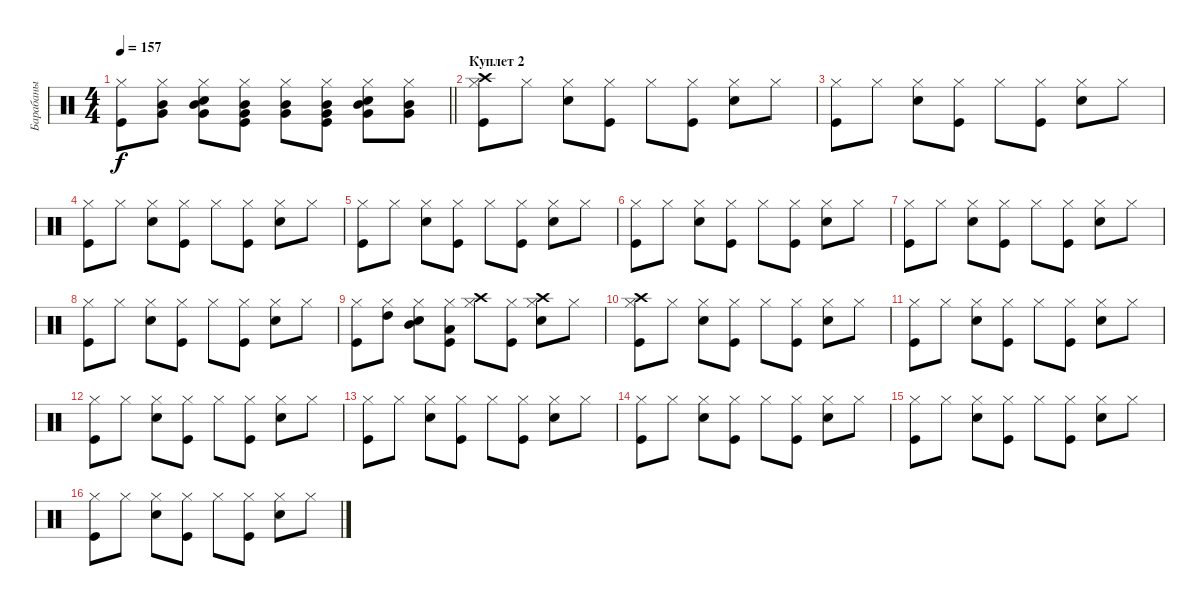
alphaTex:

\track ("Барабаны" "Барабаны") {instrument percussion}
\staff {score}
\articulation defaults
\ts (4 4)
\tempo 157
\clef neutral
\barLineRight lightlight
\ks c
("Kick (hit)" "Hi-Hat (closed)").8{dy f} ("Hi-Hat (closed)" "Very Low Tom (hit)" "Mid Tom (hit)").8 ("Snare (hit) 2" "Hi-Hat (closed)" "Very Low Tom (hit)" "Mid Tom (hit)").8 ("Kick (hit)" "Hi-Hat (closed)" "Very Low Tom (hit)" "Mid Tom (hit)").8 ("Hi-Hat (closed)" "Very Low Tom (hit)" "Mid Tom (hit)").8 ("Kick (hit)" "Hi-Hat (closed)" "Very Low Tom (hit)" "Mid Tom (hit)").8 ("Snare (hit) 2" "Hi-Hat (closed)" "Very Low Tom (hit)" "Mid Tom (hit)").8 ("Hi-Hat (closed)" "Very Low Tom (hit)" "Mid Tom (hit)").8 |
\section ("" "Куплет 2")
("Kick (hit)" "Hi-Hat (closed)" "Crash high (hit)").8 "Hi-Hat (closed)".8 ("Snare (hit) 2" "Hi-Hat (closed)").8 ("Kick (hit)" "Hi-Hat (closed)").8 "Hi-Hat (closed)".8 ("Kick (hit)" "Hi-Hat (closed)").8 ("Snare (hit) 2" "Hi-Hat (closed)").8 "Hi-Hat (closed)".8 |
("Kick (hit)" "Hi-Hat (closed)").8 "Hi-Hat (closed)".8 ("Snare (hit) 2" "Hi-Hat (closed)").8 ("Kick (hit)" "Hi-Hat (closed)").8 "Hi-Hat (closed)".8 ("Kick (hit)" "Hi-Hat (closed)").8 ("Snare (hit) 2" "Hi-Hat (closed)").8 "Hi-Hat (closed)".8 |
("Kick (hit)" "Hi-Hat (closed)").8 "Hi-Hat (closed)".8 ("Snare (hit) 2" "Hi-Hat (closed)").8 ("Kick (hit)" "Hi-Hat (closed)").8 "Hi-Hat (closed)".8 ("Kick (hit)" "Hi-Hat (closed)").8 ("Snare (hit) 2" "Hi-Hat (closed)").8 "Hi-Hat (closed)".8 |
("Kick (hit)" "Hi-Hat (closed)").8 "Hi-Hat (closed)".8 ("Snare (hit) 2" "Hi-Hat (closed)").8 ("Kick (hit)" "Hi-Hat (closed)").8 "Hi-Hat (closed)".8 ("Kick (hit)" "Hi-Hat (closed)").8 ("Snare (hit) 2" "Hi-Hat (closed)").8 "Hi-Hat (closed)".8 |
("Kick (hit)" "Hi-Hat (closed)").8 "Hi-Hat (closed)".8 ("Snare (hit) 2" "Hi-Hat (closed)").8 ("Kick (hit)" "Hi-Hat (closed)").8 "Hi-Hat (closed)".8 ("Kick (hit)" "Hi-Hat (closed)").8 ("Snare (hit) 2" "Hi-Hat (closed)").8 "Hi-Hat (closed)".8 |
("Kick (hit)" "Hi-Hat (closed)").8 "Hi-Hat (closed)".8 ("Snare (hit) 2" "Hi-Hat (closed)").8 ("Kick (hit)" "Hi-Hat (closed)").8 "Hi-Hat (closed)".8 ("Kick (hit)" "Hi-Hat (closed)").8 ("Snare (hit) 2" "Hi-Hat (closed)").8 "Hi-Hat (closed)".8 |
("Kick (hit)" "Hi-Hat (closed)").8 "Hi-Hat (closed)".8 ("Snare (hit) 2" "Hi-Hat (closed)").8 ("Kick (hit)" "Hi-Hat (closed)").8 "Hi-Hat (closed)".8 ("Kick (hit)" "Hi-Hat (closed)").8 ("Snare (hit) 2" "Hi-Hat (closed)").8 "Hi-Hat (closed)".8 |
("Kick (hit)" "Hi-Hat (closed)").8 ("Hi-Hat (closed)" "High Tom (hit)").8 ("Snare (hit) 2" "Hi-Hat (closed)" "Mid Tom (hit)").8 ("Kick (hit)" "Hi-Hat (closed)" "Low Floor Tom (hit)").8 ("Hi-Hat (closed)" "Crash high (hit)").8 ("Kick (hit)" "Hi-Hat (closed)").8 ("Snare (hit) 2" "Hi-Hat (closed)" "Crash high (hit)").8 "Hi-Hat (closed)".8 |
("Kick (hit)" "Hi-Hat (closed)" "Crash high (hit)").8 "Hi-Hat (closed)".8 ("Snare (hit) 2" "Hi-Hat (closed)").8 ("Kick (hit)" "Hi-Hat (closed)").8 "Hi-Hat (closed)".8 ("Kick (hit)" "Hi-Hat (closed)").8 ("Snare (hit) 2" "Hi-Hat (closed)").8 "Hi-Hat (closed)".8 |
("Kick (hit)" "Hi-Hat (closed)").8 "Hi-Hat (closed)".8 ("Snare (hit) 2" "Hi-Hat (closed)").8 ("Kick (hit)" "Hi-Hat (closed)").8 "Hi-Hat (closed)".8 ("Kick (hit)" "Hi-Hat (closed)").8 ("Snare (hit) 2" "Hi-Hat (closed)").8 "Hi-Hat (closed)".8 |
("Kick (hit)" "Hi-Hat (closed)").8 "Hi-Hat (closed)".8 ("Snare (hit) 2" "Hi-Hat (closed)").8 ("Kick (hit)" "Hi-Hat (closed)").8 "Hi-Hat (closed)".8 ("Kick (hit)" "Hi-Hat (closed)").8 ("Snare (hit) 2" "Hi-Hat (closed)").8 "Hi-Hat (closed)".8 |
("Kick (hit)" "Hi-Hat (closed)").8 "Hi-Hat (closed)".8 ("Snare (hit) 2" "Hi-Hat (closed)").8 ("Kick (hit)" "Hi-Hat (closed)").8 "Hi-Hat (closed)".8 ("Kick (hit)" "Hi-Hat (closed)").8 ("Snare (hit) 2" "Hi-Hat (closed)").8 "Hi-Hat (closed)".8 |
("Kick (hit)" "Hi-Hat (closed)").8 "Hi-Hat (closed)".8 ("Snare (hit) 2" "Hi-Hat (closed)").8 ("Kick (hit)" "Hi-Hat (closed)").8 "Hi-Hat (closed)".8 ("Kick (hit)" "Hi-Hat (closed)").8 ("Snare (hit) 2" "Hi-Hat (closed)").8 "Hi-Hat (closed)".8 |
("Kick (hit)" "Hi-Hat (closed)").8 "Hi-Hat (closed)".8 ("Snare (hit) 2" "Hi-Hat (closed)").8 ("Kick (hit)" "Hi-Hat (closed)").8 "Hi-Hat (closed)".8 ("Kick (hit)" "Hi-Hat (closed)").8 ("Snare (hit) 2" "Hi-Hat (closed)").8 "Hi-Hat (closed)".8 |
("Kick (hit)" "Hi-Hat (closed)").8 "Hi-Hat (closed)".8 ("Snare (hit) 2" "Hi-Hat (closed)").8 ("Kick (hit)" "Hi-Hat (closed)").8 "Hi-Hat (closed)".8 ("Kick (hit)" "Hi-Hat (closed)").8 ("Snare (hit) 2" "Hi-Hat (closed)").8 "Hi-Hat (closed)".8
